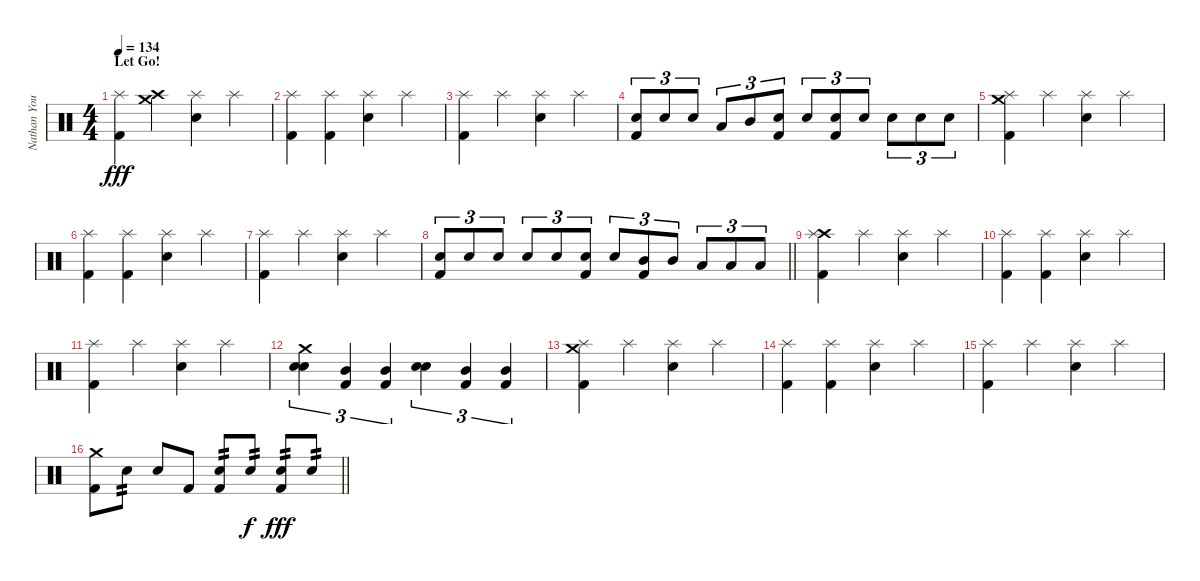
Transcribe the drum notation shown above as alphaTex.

\track ("Nathan Young" "Nathan You") {instrument percussion}
\staff {score}
\articulation defaults
\ts (4 4)
\section ("" "Let Go!")
\tempo 134
\clef neutral
\ks c
("Splash (hit)" "Kick (hit) 2").4{dy fff} ("Crash medium (hit)" "Crash high (hit)").4 ("Splash (hit)" "Electric Snare (hit)").4 "Splash (hit)".4 |
("Splash (hit)" "Kick (hit) 2").4 ("Splash (hit)" "Kick (hit) 2").4 ("Splash (hit)" "Electric Snare (hit)").4 "Splash (hit)".4 |
("Splash (hit)" "Kick (hit) 2").4 "Splash (hit)".4 ("Splash (hit)" "Electric Snare (hit)").4 "Splash (hit)".4 |
("Electric Snare (hit)" "Kick (hit) 2").8{tu (3 2)} "Electric Snare (hit)".8{tu (3 2)} "Electric Snare (hit)".8{tu (3 2)} "Low Tom (hit)".8{tu (3 2)} "Mid Tom (hit)".8{tu (3 2)} ("Electric Snare (hit)" "Kick (hit) 2").8{tu (3 2)} "Electric Snare (hit)".8{tu (3 2)} ("Electric Snare (hit)" "Kick (hit) 2").8{tu (3 2)} "Electric Snare (hit)".8{tu (3 2)} "Electric Snare (hit)".8{tu (3 2)} "Electric Snare (hit)".8{tu (3 2)} "Electric Snare (hit)".8{tu (3 2)} |
("Crash medium (hit)" "Splash (hit)" "Kick (hit) 2").4 "Splash (hit)".4 ("Splash (hit)" "Electric Snare (hit)").4 "Splash (hit)".4 |
("Splash (hit)" "Kick (hit) 2").4 ("Splash (hit)" "Kick (hit) 2").4 ("Splash (hit)" "Electric Snare (hit)").4 "Splash (hit)".4 |
("Splash (hit)" "Kick (hit) 2").4 "Splash (hit)".4 ("Splash (hit)" "Electric Snare (hit)").4 "Splash (hit)".4 |
\barLineRight lightlight
("Electric Snare (hit)" "Kick (hit) 2").8{tu (3 2)} "Electric Snare (hit)".8{tu (3 2)} "Electric Snare (hit)".8{tu (3 2)} "Electric Snare (hit)".8{tu (3 2)} "Electric Snare (hit)".8{tu (3 2)} ("Electric Snare (hit)" "Kick (hit) 2").8{tu (3 2)} "Electric Snare (hit)".8{tu (3 2)} ("Mid Tom (hit)" "Kick (hit) 2").8{tu (3 2)} "Mid Tom (hit)".8{tu (3 2)} "Low Tom (hit)".8{tu (3 2)} "Low Tom (hit)".8{tu (3 2)} "Low Tom (hit)".8{tu (3 2)} |
("Crash high (hit)" "Splash (hit)" "Kick (hit) 2").4 "Splash (hit)".4 ("Splash (hit)" "Electric Snare (hit)").4 "Splash (hit)".4 |
("Splash (hit)" "Kick (hit) 2").4 ("Splash (hit)" "Kick (hit) 2").4 ("Splash (hit)" "Electric Snare (hit)").4 "Splash (hit)".4 |
("Splash (hit)" "Kick (hit) 2").4 "Splash (hit)".4 ("Splash (hit)" "Electric Snare (hit)").4 "Splash (hit)".4 |
("Crash medium (hit)" "Snare (hit) 2" "Electric Snare (hit)").4{tu (3 2)} ("Mid Tom (hit)" "Kick (hit) 2").4{tu (3 2)} ("Mid Tom (hit)" "Kick (hit) 2").4{tu (3 2)} ("Snare (hit) 2" "Electric Snare (hit)").4{tu (3 2)} ("Mid Tom (hit)" "Kick (hit) 2").4{tu (3 2)} ("Mid Tom (hit)" "Kick (hit) 2").4{tu (3 2)} |
("Crash medium (hit)" "Splash (hit)" "Kick (hit) 2").4 "Splash (hit)".4 ("Splash (hit)" "Electric Snare (hit)").4 "Splash (hit)".4 |
("Splash (hit)" "Kick (hit) 2").4 ("Splash (hit)" "Kick (hit) 2").4 ("Splash (hit)" "Electric Snare (hit)").4 "Splash (hit)".4 |
("Splash (hit)" "Kick (hit) 2").4 "Splash (hit)".4 ("Splash (hit)" "Electric Snare (hit)").4 "Splash (hit)".4 |
\barLineRight lightlight
("Crash medium (hit)" "Kick (hit) 2").8 "Electric Snare (hit)".8{tp 2} "Electric Snare (hit)".8 "Kick (hit) 2".8 ("Electric Snare (hit)" "Kick (hit) 2").8{tp 2} "Electric Snare (hit)".8{tp 2 dy f} ("Electric Snare (hit)" "Kick (hit) 2").8{tp 2 dy fff} "Electric Snare (hit)".8{tp 2}
